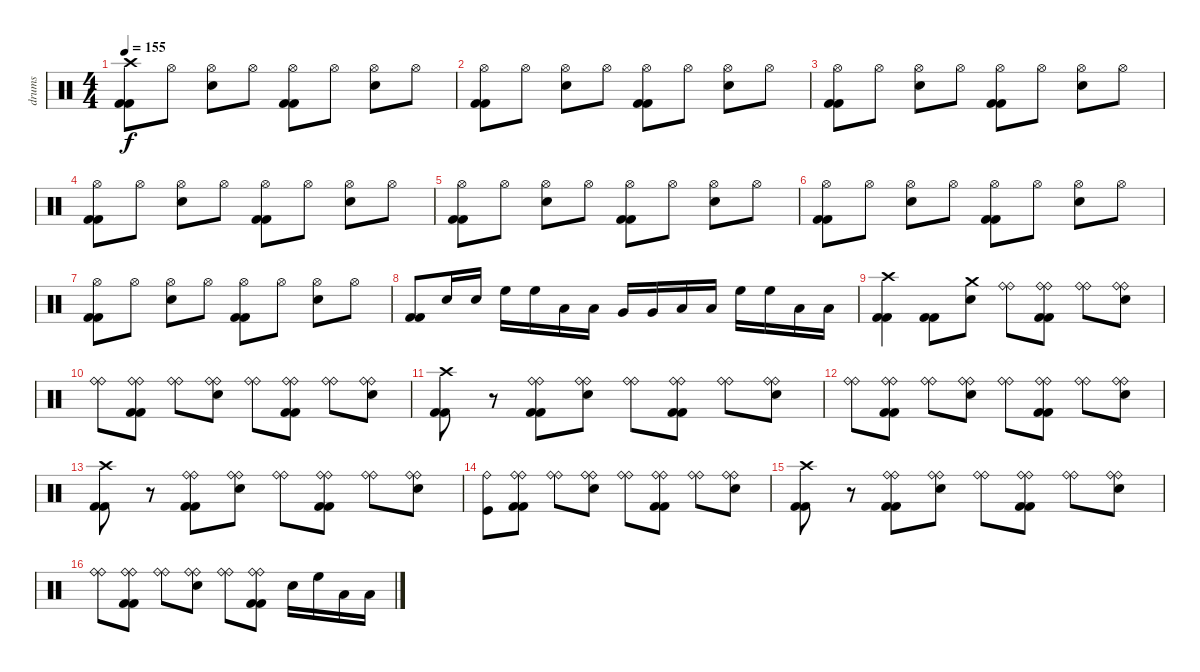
\track ("drums" "drums") {instrument percussion}
\staff {score}
\articulation defaults
\ts (4 4)
\tempo 155
\clef neutral
\ks c
("Crash high (hit)" "Kick (hit) 2" "Kick (hit) 2").8{dy f} "Hi-Hat (open)".8 ("Hi-Hat (open)" "Electric Snare (hit)").8 "Hi-Hat (open)".8 ("Hi-Hat (open)" "Kick (hit) 2" "Kick (hit) 2").8 "Hi-Hat (open)".8 ("Hi-Hat (open)" "Electric Snare (hit)").8 "Hi-Hat (open)".8 |
("Hi-Hat (open)" "Kick (hit) 2" "Kick (hit) 2").8 "Hi-Hat (open)".8 ("Hi-Hat (open)" "Electric Snare (hit)").8 "Hi-Hat (open)".8 ("Hi-Hat (open)" "Kick (hit) 2" "Kick (hit) 2").8 "Hi-Hat (open)".8 ("Hi-Hat (open)" "Electric Snare (hit)").8 "Hi-Hat (open)".8 |
("Hi-Hat (open)" "Kick (hit) 2" "Kick (hit) 2").8 "Hi-Hat (open)".8 ("Hi-Hat (open)" "Electric Snare (hit)").8 "Hi-Hat (open)".8 ("Hi-Hat (open)" "Kick (hit) 2" "Kick (hit) 2").8 "Hi-Hat (open)".8 ("Hi-Hat (open)" "Electric Snare (hit)").8 "Hi-Hat (open)".8 |
("Hi-Hat (open)" "Kick (hit) 2" "Kick (hit) 2").8 "Hi-Hat (open)".8 ("Hi-Hat (open)" "Electric Snare (hit)").8 "Hi-Hat (open)".8 ("Hi-Hat (open)" "Kick (hit) 2" "Kick (hit) 2").8 "Hi-Hat (open)".8 ("Hi-Hat (open)" "Electric Snare (hit)").8 "Hi-Hat (open)".8 |
("Hi-Hat (open)" "Kick (hit) 2" "Kick (hit) 2").8 "Hi-Hat (open)".8 ("Hi-Hat (open)" "Electric Snare (hit)").8 "Hi-Hat (open)".8 ("Hi-Hat (open)" "Kick (hit) 2" "Kick (hit) 2").8 "Hi-Hat (open)".8 ("Hi-Hat (open)" "Electric Snare (hit)").8 "Hi-Hat (open)".8 |
("Hi-Hat (open)" "Kick (hit) 2" "Kick (hit) 2").8 "Hi-Hat (open)".8 ("Hi-Hat (open)" "Electric Snare (hit)").8 "Hi-Hat (open)".8 ("Hi-Hat (open)" "Kick (hit) 2" "Kick (hit) 2").8 "Hi-Hat (open)".8 ("Hi-Hat (open)" "Electric Snare (hit)").8 "Hi-Hat (open)".8 |
("Hi-Hat (open)" "Kick (hit) 2" "Kick (hit) 2").8 "Hi-Hat (open)".8 ("Hi-Hat (open)" "Electric Snare (hit)").8 "Hi-Hat (open)".8 ("Hi-Hat (open)" "Kick (hit) 2" "Kick (hit) 2").8 "Hi-Hat (open)".8 ("Hi-Hat (open)" "Electric Snare (hit)").8 "Hi-Hat (open)".8 |
("Kick (hit) 2" "Kick (hit) 2").8 "Electric Snare (hit)".16 "Electric Snare (hit)".16 "High Floor Tom (hit)".16 "High Floor Tom (hit)".16 "Low Tom (hit)".16 "Low Tom (hit)".16 "Very Low Tom (hit)".16 "Very Low Tom (hit)".16 "Low Tom (hit)".16 "Low Tom (hit)".16 "High Floor Tom (hit)".16 "High Floor Tom (hit)".16 "Low Floor Tom (hit)".16 "Low Floor Tom (hit)".16 |
("Crash high (hit)" "Kick (hit) 2" "Kick (hit) 2").4 ("Kick (hit) 2" "Kick (hit) 2").8 ("Crash medium (hit)" "Electric Snare (hit)").8 ("Ride (bell)" "Ride (bell)").8 ("Ride (bell)" "Ride (bell)" "Kick (hit) 2" "Kick (hit) 2").8 ("Ride (bell)" "Ride (bell)").8 ("Ride (bell)" "Ride (bell)" "Electric Snare (hit)").8 |
("Ride (bell)" "Ride (bell)").8 ("Ride (bell)" "Ride (bell)" "Kick (hit) 2" "Kick (hit) 2").8 ("Ride (bell)" "Ride (bell)").8 ("Ride (bell)" "Ride (bell)" "Electric Snare (hit)").8 ("Ride (bell)" "Ride (bell)").8 ("Ride (bell)" "Ride (bell)" "Kick (hit) 2" "Kick (hit) 2").8 ("Ride (bell)" "Ride (bell)").8 ("Ride (bell)" "Ride (bell)" "Electric Snare (hit)").8 |
("Crash high (hit)" "Kick (hit) 2" "Kick (hit) 2").8 r.8 ("Ride (bell)" "Ride (bell)" "Kick (hit) 2" "Kick (hit) 2").8 ("Ride (bell)" "Ride (bell)" "Electric Snare (hit)").8 ("Ride (bell)" "Ride (bell)").8 ("Ride (bell)" "Ride (bell)" "Kick (hit) 2" "Kick (hit) 2").8 ("Ride (bell)" "Ride (bell)").8 ("Ride (bell)" "Ride (bell)" "Electric Snare (hit)").8 |
("Ride (bell)" "Ride (bell)").8 ("Ride (bell)" "Ride (bell)" "Kick (hit) 2" "Kick (hit) 2").8 ("Ride (bell)" "Ride (bell)").8 ("Ride (bell)" "Ride (bell)" "Electric Snare (hit)").8 ("Ride (bell)" "Ride (bell)").8 ("Ride (bell)" "Ride (bell)" "Kick (hit) 2" "Kick (hit) 2").8 ("Ride (bell)" "Ride (bell)").8 ("Ride (bell)" "Ride (bell)" "Electric Snare (hit)").8 |
("Crash high (hit)" "Kick (hit) 2" "Kick (hit) 2").8 r.8 ("Ride (bell)" "Ride (bell)" "Kick (hit) 2" "Kick (hit) 2").8 ("Ride (bell)" "Ride (bell)" "Electric Snare (hit)").8 ("Ride (bell)" "Ride (bell)").8 ("Ride (bell)" "Ride (bell)" "Kick (hit) 2" "Kick (hit) 2").8 ("Ride (bell)" "Ride (bell)").8 ("Ride (bell)" "Ride (bell)" "Electric Snare (hit)").8 |
("Kick (hit)" "Ride (bell)").8 ("Ride (bell)" "Ride (bell)" "Kick (hit) 2" "Kick (hit) 2").8 ("Ride (bell)" "Ride (bell)").8 ("Ride (bell)" "Ride (bell)" "Electric Snare (hit)").8 ("Ride (bell)" "Ride (bell)").8 ("Ride (bell)" "Ride (bell)" "Kick (hit) 2" "Kick (hit) 2").8 ("Ride (bell)" "Ride (bell)").8 ("Ride (bell)" "Ride (bell)" "Electric Snare (hit)").8 |
("Crash high (hit)" "Kick (hit) 2" "Kick (hit) 2").8 r.8 ("Ride (bell)" "Ride (bell)" "Kick (hit) 2" "Kick (hit) 2").8 ("Ride (bell)" "Ride (bell)" "Electric Snare (hit)").8 ("Ride (bell)" "Ride (bell)").8 ("Ride (bell)" "Ride (bell)" "Kick (hit) 2" "Kick (hit) 2").8 ("Ride (bell)" "Ride (bell)").8 ("Ride (bell)" "Ride (bell)" "Electric Snare (hit)").8 |
("Ride (bell)" "Ride (bell)").8 ("Ride (bell)" "Ride (bell)" "Kick (hit) 2" "Kick (hit) 2").8 ("Ride (bell)" "Ride (bell)").8 ("Ride (bell)" "Ride (bell)" "Electric Snare (hit)").8 ("Ride (bell)" "Ride (bell)").8 ("Ride (bell)" "Ride (bell)" "Kick (hit) 2" "Kick (hit) 2").8 "Electric Snare (hit)".16 "High Floor Tom (hit)".16 "Low Tom (hit)".16 "Low Floor Tom (hit)".16
